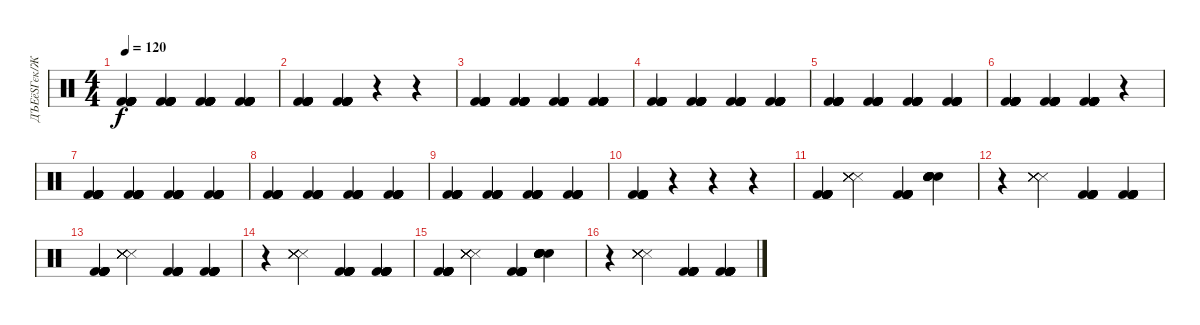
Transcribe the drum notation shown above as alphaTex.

\track ("ДЪЕёЅГєк/ЖК" "ДЪЕёЅГєк/Ж") {instrument percussion}
\staff {score}
\articulation defaults
\ts (4 4)
\tempo 120
\clef neutral
\ks c
("Kick (hit) 2" "Kick (hit) 2" "Kick (hit) 2" "Kick (hit) 2" "Kick (hit) 2" "Kick (hit) 2").4{dy f} ("Kick (hit) 2" "Kick (hit) 2" "Kick (hit) 2" "Kick (hit) 2" "Kick (hit) 2" "Kick (hit) 2").4 ("Kick (hit) 2" "Kick (hit) 2" "Kick (hit) 2" "Kick (hit) 2" "Kick (hit) 2" "Kick (hit) 2").4 ("Kick (hit) 2" "Kick (hit) 2" "Kick (hit) 2" "Kick (hit) 2" "Kick (hit) 2" "Kick (hit) 2").4 |
("Kick (hit) 2" "Kick (hit) 2" "Kick (hit) 2" "Kick (hit) 2" "Kick (hit) 2" "Kick (hit) 2").4 ("Kick (hit) 2" "Kick (hit) 2" "Kick (hit) 2" "Kick (hit) 2" "Kick (hit) 2" "Kick (hit) 2").4 r.4 r.4 |
("Kick (hit) 2" "Kick (hit) 2" "Kick (hit) 2" "Kick (hit) 2" "Kick (hit) 2" "Kick (hit) 2").4 ("Kick (hit) 2" "Kick (hit) 2" "Kick (hit) 2" "Kick (hit) 2" "Kick (hit) 2" "Kick (hit) 2").4 ("Kick (hit) 2" "Kick (hit) 2" "Kick (hit) 2" "Kick (hit) 2" "Kick (hit) 2" "Kick (hit) 2").4 ("Kick (hit) 2" "Kick (hit) 2" "Kick (hit) 2" "Kick (hit) 2" "Kick (hit) 2" "Kick (hit) 2").4 |
("Kick (hit) 2" "Kick (hit) 2" "Kick (hit) 2" "Kick (hit) 2" "Kick (hit) 2" "Kick (hit) 2").4 ("Kick (hit) 2" "Kick (hit) 2" "Kick (hit) 2" "Kick (hit) 2" "Kick (hit) 2" "Kick (hit) 2").4 ("Kick (hit) 2" "Kick (hit) 2" "Kick (hit) 2" "Kick (hit) 2" "Kick (hit) 2" "Kick (hit) 2").4 ("Kick (hit) 2" "Kick (hit) 2" "Kick (hit) 2" "Kick (hit) 2" "Kick (hit) 2" "Kick (hit) 2").4 |
("Kick (hit) 2" "Kick (hit) 2" "Kick (hit) 2" "Kick (hit) 2" "Kick (hit) 2" "Kick (hit) 2").4 ("Kick (hit) 2" "Kick (hit) 2" "Kick (hit) 2" "Kick (hit) 2" "Kick (hit) 2" "Kick (hit) 2").4 ("Kick (hit) 2" "Kick (hit) 2" "Kick (hit) 2" "Kick (hit) 2" "Kick (hit) 2" "Kick (hit) 2").4 ("Kick (hit) 2" "Kick (hit) 2" "Kick (hit) 2" "Kick (hit) 2" "Kick (hit) 2" "Kick (hit) 2").4 |
("Kick (hit) 2" "Kick (hit) 2" "Kick (hit) 2" "Kick (hit) 2" "Kick (hit) 2" "Kick (hit) 2").4 ("Kick (hit) 2" "Kick (hit) 2" "Kick (hit) 2" "Kick (hit) 2" "Kick (hit) 2" "Kick (hit) 2").4 ("Kick (hit) 2" "Kick (hit) 2" "Kick (hit) 2" "Kick (hit) 2" "Kick (hit) 2" "Kick (hit) 2").4 r.4 |
("Kick (hit) 2" "Kick (hit) 2" "Kick (hit) 2" "Kick (hit) 2" "Kick (hit) 2" "Kick (hit) 2").4 ("Kick (hit) 2" "Kick (hit) 2" "Kick (hit) 2" "Kick (hit) 2" "Kick (hit) 2" "Kick (hit) 2").4 ("Kick (hit) 2" "Kick (hit) 2" "Kick (hit) 2" "Kick (hit) 2" "Kick (hit) 2" "Kick (hit) 2").4 ("Kick (hit) 2" "Kick (hit) 2" "Kick (hit) 2" "Kick (hit) 2" "Kick (hit) 2" "Kick (hit) 2").4 |
("Kick (hit) 2" "Kick (hit) 2" "Kick (hit) 2" "Kick (hit) 2" "Kick (hit) 2" "Kick (hit) 2").4 ("Kick (hit) 2" "Kick (hit) 2" "Kick (hit) 2" "Kick (hit) 2" "Kick (hit) 2" "Kick (hit) 2").4 ("Kick (hit) 2" "Kick (hit) 2" "Kick (hit) 2" "Kick (hit) 2" "Kick (hit) 2" "Kick (hit) 2").4 ("Kick (hit) 2" "Kick (hit) 2" "Kick (hit) 2" "Kick (hit) 2" "Kick (hit) 2" "Kick (hit) 2").4 |
("Kick (hit) 2" "Kick (hit) 2" "Kick (hit) 2" "Kick (hit) 2" "Kick (hit) 2" "Kick (hit) 2").4 ("Kick (hit) 2" "Kick (hit) 2" "Kick (hit) 2" "Kick (hit) 2" "Kick (hit) 2" "Kick (hit) 2").4 ("Kick (hit) 2" "Kick (hit) 2" "Kick (hit) 2" "Kick (hit) 2" "Kick (hit) 2" "Kick (hit) 2").4 ("Kick (hit) 2" "Kick (hit) 2" "Kick (hit) 2" "Kick (hit) 2" "Kick (hit) 2" "Kick (hit) 2").4 |
("Kick (hit) 2" "Kick (hit) 2" "Kick (hit) 2" "Kick (hit) 2" "Kick (hit) 2" "Kick (hit) 2").4 r.4 r.4 r.4 |
("Kick (hit) 2" "Kick (hit) 2" "Kick (hit) 2" "Kick (hit) 2" "Kick (hit) 2" "Kick (hit) 2").4 ("Metronome (hit)" "Metronome (hit)" "Metronome (hit)" "Metronome (hit)" "Metronome (hit)" "Metronome (hit)").4 ("Kick (hit) 2" "Kick (hit) 2" "Kick (hit) 2" "Kick (hit) 2" "Kick (hit) 2" "Kick (hit) 2").4 ("Hand Clap (hit)" "Hand Clap (hit)" "Hand Clap (hit)" "Hand Clap (hit)" "Hand Clap (hit)" "Hand Clap (hit)").4 |
r.4 ("Metronome (hit)" "Metronome (hit)" "Metronome (hit)" "Metronome (hit)" "Metronome (hit)" "Metronome (hit)").4 ("Kick (hit) 2" "Kick (hit) 2" "Kick (hit) 2" "Kick (hit) 2" "Kick (hit) 2" "Kick (hit) 2").4 ("Kick (hit) 2" "Kick (hit) 2" "Kick (hit) 2" "Kick (hit) 2" "Kick (hit) 2" "Kick (hit) 2").4 |
("Kick (hit) 2" "Kick (hit) 2" "Kick (hit) 2" "Kick (hit) 2" "Kick (hit) 2" "Kick (hit) 2").4 ("Metronome (hit)" "Metronome (hit)" "Metronome (hit)" "Metronome (hit)" "Metronome (hit)" "Metronome (hit)").4 ("Kick (hit) 2" "Kick (hit) 2" "Kick (hit) 2" "Kick (hit) 2" "Kick (hit) 2" "Kick (hit) 2").4 ("Kick (hit) 2" "Kick (hit) 2" "Kick (hit) 2" "Kick (hit) 2" "Kick (hit) 2" "Kick (hit) 2").4 |
r.4 ("Metronome (hit)" "Metronome (hit)" "Metronome (hit)" "Metronome (hit)" "Metronome (hit)" "Metronome (hit)").4 ("Kick (hit) 2" "Kick (hit) 2" "Kick (hit) 2" "Kick (hit) 2" "Kick (hit) 2" "Kick (hit) 2").4 ("Kick (hit) 2" "Kick (hit) 2" "Kick (hit) 2" "Kick (hit) 2" "Kick (hit) 2" "Kick (hit) 2").4 |
("Kick (hit) 2" "Kick (hit) 2" "Kick (hit) 2" "Kick (hit) 2" "Kick (hit) 2" "Kick (hit) 2").4 ("Metronome (hit)" "Metronome (hit)" "Metronome (hit)" "Metronome (hit)" "Metronome (hit)" "Metronome (hit)").4 ("Kick (hit) 2" "Kick (hit) 2" "Kick (hit) 2" "Kick (hit) 2" "Kick (hit) 2" "Kick (hit) 2").4 ("Hand Clap (hit)" "Hand Clap (hit)" "Hand Clap (hit)" "Hand Clap (hit)" "Hand Clap (hit)" "Hand Clap (hit)").4 |
r.4 ("Metronome (hit)" "Metronome (hit)" "Metronome (hit)" "Metronome (hit)" "Metronome (hit)" "Metronome (hit)").4 ("Kick (hit) 2" "Kick (hit) 2" "Kick (hit) 2" "Kick (hit) 2" "Kick (hit) 2" "Kick (hit) 2").4 ("Kick (hit) 2" "Kick (hit) 2" "Kick (hit) 2" "Kick (hit) 2" "Kick (hit) 2" "Kick (hit) 2").4
